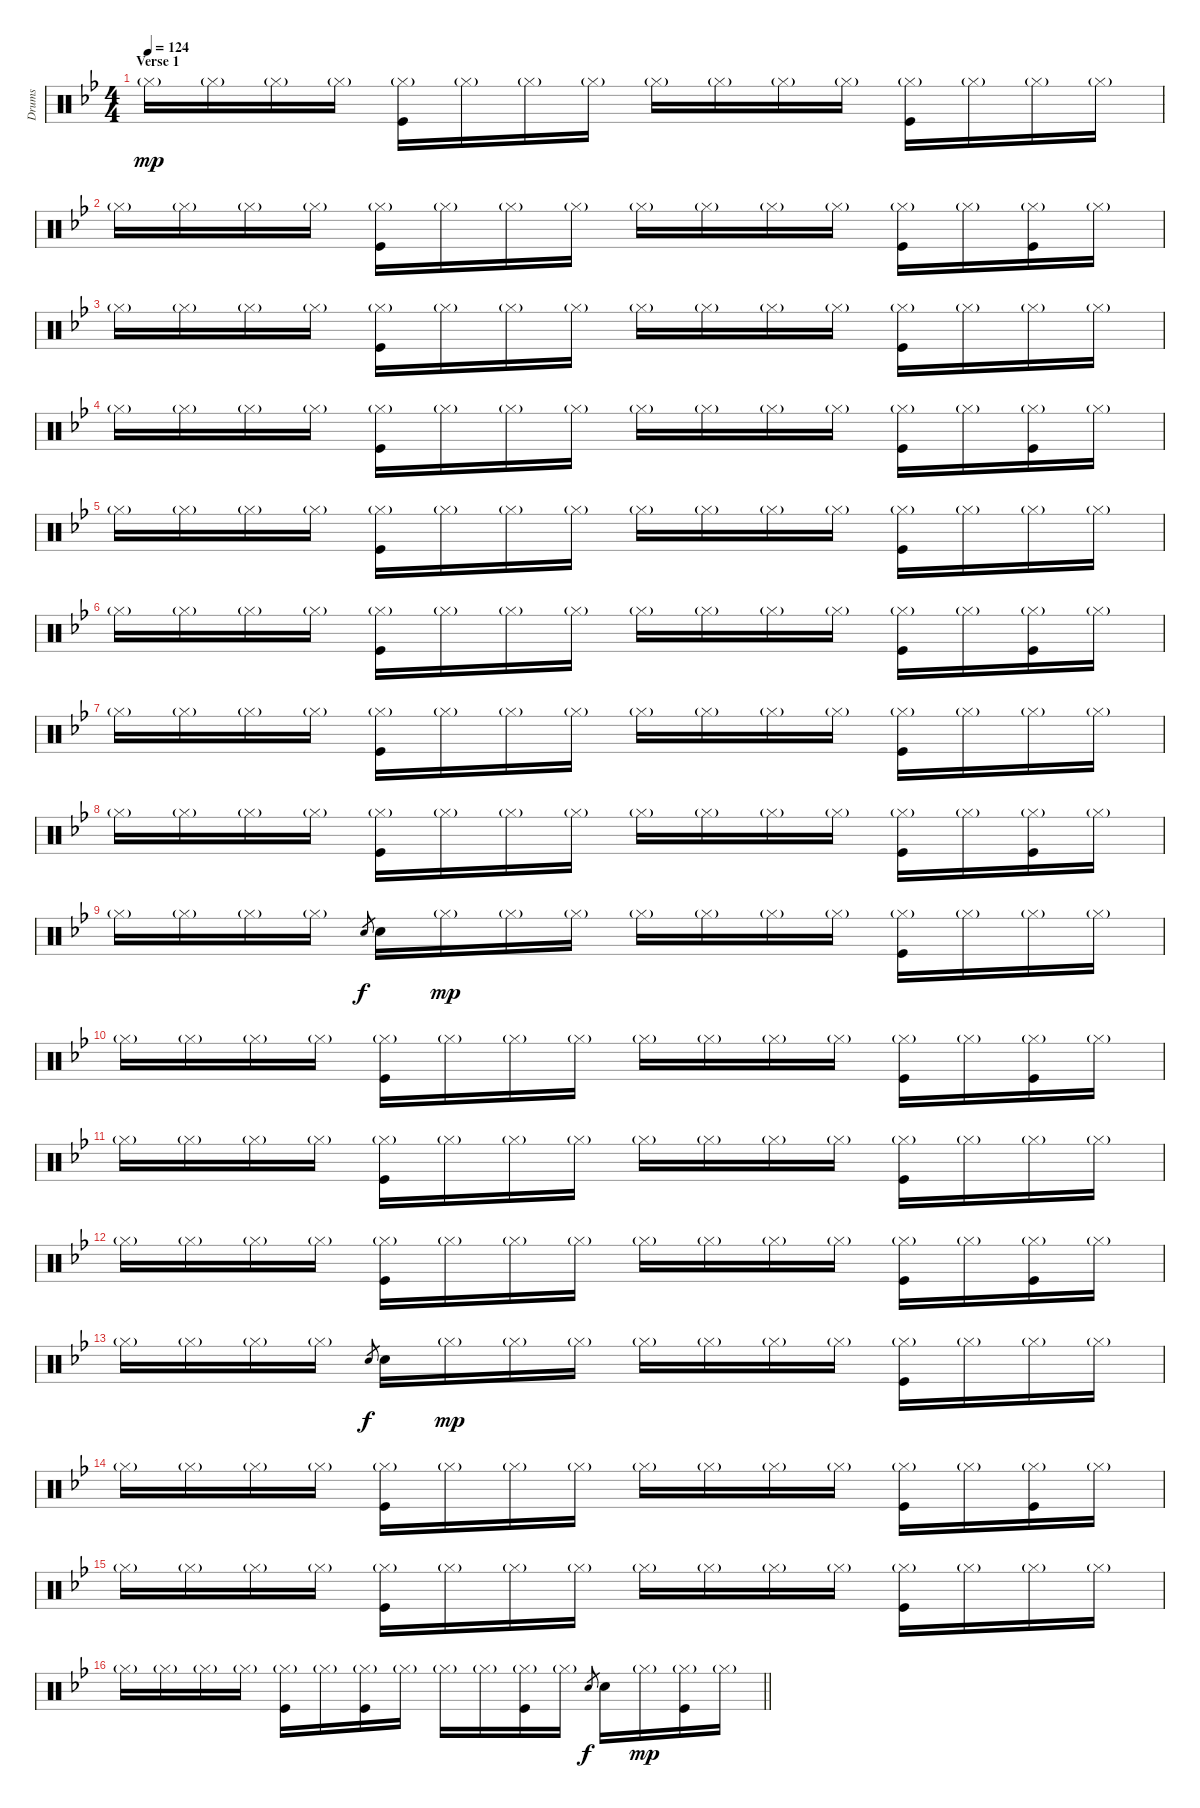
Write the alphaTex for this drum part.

\track ("Drums" "Drums") {instrument percussion}
\staff {score}
\articulation defaults
\ts (4 4)
\section ("" "Verse 1")
\tempo 124
\clef neutral
\ks gminor "Hi-Hat (closed)"{g}.16{dy mp} "Hi-Hat (closed)"{g}.16 "Hi-Hat (closed)"{g}.16 "Hi-Hat (closed)"{g}.16
("Hi-Hat (closed)"{g} "Kick (hit)").16 "Hi-Hat (closed)"{g}.16 "Hi-Hat (closed)"{g}.16 "Hi-Hat (closed)"{g}.16 "Hi-Hat (closed)"{g}.16 "Hi-Hat (closed)"{g}.16 "Hi-Hat (closed)"{g}.16 "Hi-Hat (closed)"{g}.16 ("Hi-Hat (closed)"{g} "Kick (hit)").16 "Hi-Hat (closed)"{g}.16 "Hi-Hat (closed)"{g}.16 "Hi-Hat (closed)"{g}.16 |
"Hi-Hat (closed)"{g}.16 "Hi-Hat (closed)"{g}.16 "Hi-Hat (closed)"{g}.16 "Hi-Hat (closed)"{g}.16 ("Hi-Hat (closed)"{g} "Kick (hit)").16 "Hi-Hat (closed)"{g}.16 "Hi-Hat (closed)"{g}.16 "Hi-Hat (closed)"{g}.16 "Hi-Hat (closed)"{g}.16 "Hi-Hat (closed)"{g}.16 "Hi-Hat (closed)"{g}.16 "Hi-Hat (closed)"{g}.16 ("Hi-Hat (closed)"{g} "Kick (hit)").16 "Hi-Hat (closed)"{g}.16 ("Hi-Hat (closed)"{g} "Kick (hit)").16 "Hi-Hat (closed)"{g}.16 |
"Hi-Hat (closed)"{g}.16 "Hi-Hat (closed)"{g}.16 "Hi-Hat (closed)"{g}.16 "Hi-Hat (closed)"{g}.16 ("Hi-Hat (closed)"{g} "Kick (hit)").16 "Hi-Hat (closed)"{g}.16 "Hi-Hat (closed)"{g}.16 "Hi-Hat (closed)"{g}.16 "Hi-Hat (closed)"{g}.16 "Hi-Hat (closed)"{g}.16 "Hi-Hat (closed)"{g}.16 "Hi-Hat (closed)"{g}.16 ("Hi-Hat (closed)"{g} "Kick (hit)").16 "Hi-Hat (closed)"{g}.16 "Hi-Hat (closed)"{g}.16 "Hi-Hat (closed)"{g}.16 |
"Hi-Hat (closed)"{g}.16 "Hi-Hat (closed)"{g}.16 "Hi-Hat (closed)"{g}.16 "Hi-Hat (closed)"{g}.16 ("Hi-Hat (closed)"{g} "Kick (hit)").16 "Hi-Hat (closed)"{g}.16 "Hi-Hat (closed)"{g}.16 "Hi-Hat (closed)"{g}.16 "Hi-Hat (closed)"{g}.16 "Hi-Hat (closed)"{g}.16 "Hi-Hat (closed)"{g}.16 "Hi-Hat (closed)"{g}.16 ("Hi-Hat (closed)"{g} "Kick (hit)").16 "Hi-Hat (closed)"{g}.16 ("Hi-Hat (closed)"{g} "Kick (hit)").16 "Hi-Hat (closed)"{g}.16 |
"Hi-Hat (closed)"{g}.16 "Hi-Hat (closed)"{g}.16 "Hi-Hat (closed)"{g}.16 "Hi-Hat (closed)"{g}.16 ("Hi-Hat (closed)"{g} "Kick (hit)").16 "Hi-Hat (closed)"{g}.16 "Hi-Hat (closed)"{g}.16 "Hi-Hat (closed)"{g}.16 "Hi-Hat (closed)"{g}.16 "Hi-Hat (closed)"{g}.16 "Hi-Hat (closed)"{g}.16 "Hi-Hat (closed)"{g}.16 ("Hi-Hat (closed)"{g} "Kick (hit)").16 "Hi-Hat (closed)"{g}.16 "Hi-Hat (closed)"{g}.16 "Hi-Hat (closed)"{g}.16 |
"Hi-Hat (closed)"{g}.16 "Hi-Hat (closed)"{g}.16 "Hi-Hat (closed)"{g}.16 "Hi-Hat (closed)"{g}.16 ("Hi-Hat (closed)"{g} "Kick (hit)").16 "Hi-Hat (closed)"{g}.16 "Hi-Hat (closed)"{g}.16 "Hi-Hat (closed)"{g}.16 "Hi-Hat (closed)"{g}.16 "Hi-Hat (closed)"{g}.16 "Hi-Hat (closed)"{g}.16 "Hi-Hat (closed)"{g}.16 ("Hi-Hat (closed)"{g} "Kick (hit)").16 "Hi-Hat (closed)"{g}.16 ("Hi-Hat (closed)"{g} "Kick (hit)").16 "Hi-Hat (closed)"{g}.16 |
"Hi-Hat (closed)"{g}.16 "Hi-Hat (closed)"{g}.16 "Hi-Hat (closed)"{g}.16 "Hi-Hat (closed)"{g}.16 ("Hi-Hat (closed)"{g} "Kick (hit)").16 "Hi-Hat (closed)"{g}.16 "Hi-Hat (closed)"{g}.16 "Hi-Hat (closed)"{g}.16 "Hi-Hat (closed)"{g}.16 "Hi-Hat (closed)"{g}.16 "Hi-Hat (closed)"{g}.16 "Hi-Hat (closed)"{g}.16 ("Hi-Hat (closed)"{g} "Kick (hit)").16 "Hi-Hat (closed)"{g}.16 "Hi-Hat (closed)"{g}.16 "Hi-Hat (closed)"{g}.16 |
"Hi-Hat (closed)"{g}.16 "Hi-Hat (closed)"{g}.16 "Hi-Hat (closed)"{g}.16 "Hi-Hat (closed)"{g}.16 ("Hi-Hat (closed)"{g} "Kick (hit)").16 "Hi-Hat (closed)"{g}.16 "Hi-Hat (closed)"{g}.16 "Hi-Hat (closed)"{g}.16 "Hi-Hat (closed)"{g}.16 "Hi-Hat (closed)"{g}.16 "Hi-Hat (closed)"{g}.16 "Hi-Hat (closed)"{g}.16 ("Hi-Hat (closed)"{g} "Kick (hit)").16 "Hi-Hat (closed)"{g}.16 ("Hi-Hat (closed)"{g} "Kick (hit)").16 "Hi-Hat (closed)"{g}.16 |
"Hi-Hat (closed)"{g}.16 "Hi-Hat (closed)"{g}.16 "Hi-Hat (closed)"{g}.16 "Hi-Hat (closed)"{g}.16 "Snare (hit) 2"{h}.8{gr dy f} "Snare (hit) 2".16 "Hi-Hat (closed)"{g}.16{dy mp} "Hi-Hat (closed)"{g}.16 "Hi-Hat (closed)"{g}.16 "Hi-Hat (closed)"{g}.16 "Hi-Hat (closed)"{g}.16 "Hi-Hat (closed)"{g}.16 "Hi-Hat (closed)"{g}.16 ("Hi-Hat (closed)"{g} "Kick (hit)").16 "Hi-Hat (closed)"{g}.16 "Hi-Hat (closed)"{g}.16 "Hi-Hat (closed)"{g}.16 |
"Hi-Hat (closed)"{g}.16 "Hi-Hat (closed)"{g}.16 "Hi-Hat (closed)"{g}.16 "Hi-Hat (closed)"{g}.16 ("Hi-Hat (closed)"{g} "Kick (hit)").16 "Hi-Hat (closed)"{g}.16 "Hi-Hat (closed)"{g}.16 "Hi-Hat (closed)"{g}.16 "Hi-Hat (closed)"{g}.16 "Hi-Hat (closed)"{g}.16 "Hi-Hat (closed)"{g}.16 "Hi-Hat (closed)"{g}.16 ("Hi-Hat (closed)"{g} "Kick (hit)").16 "Hi-Hat (closed)"{g}.16 ("Hi-Hat (closed)"{g} "Kick (hit)").16 "Hi-Hat (closed)"{g}.16 |
"Hi-Hat (closed)"{g}.16 "Hi-Hat (closed)"{g}.16 "Hi-Hat (closed)"{g}.16 "Hi-Hat (closed)"{g}.16 ("Hi-Hat (closed)"{g} "Kick (hit)").16 "Hi-Hat (closed)"{g}.16 "Hi-Hat (closed)"{g}.16 "Hi-Hat (closed)"{g}.16 "Hi-Hat (closed)"{g}.16 "Hi-Hat (closed)"{g}.16 "Hi-Hat (closed)"{g}.16 "Hi-Hat (closed)"{g}.16 ("Hi-Hat (closed)"{g} "Kick (hit)").16 "Hi-Hat (closed)"{g}.16 "Hi-Hat (closed)"{g}.16 "Hi-Hat (closed)"{g}.16 |
"Hi-Hat (closed)"{g}.16 "Hi-Hat (closed)"{g}.16 "Hi-Hat (closed)"{g}.16 "Hi-Hat (closed)"{g}.16 ("Hi-Hat (closed)"{g} "Kick (hit)").16 "Hi-Hat (closed)"{g}.16 "Hi-Hat (closed)"{g}.16 "Hi-Hat (closed)"{g}.16 "Hi-Hat (closed)"{g}.16 "Hi-Hat (closed)"{g}.16 "Hi-Hat (closed)"{g}.16 "Hi-Hat (closed)"{g}.16 ("Hi-Hat (closed)"{g} "Kick (hit)").16 "Hi-Hat (closed)"{g}.16 ("Hi-Hat (closed)"{g} "Kick (hit)").16 "Hi-Hat (closed)"{g}.16 |
"Hi-Hat (closed)"{g}.16 "Hi-Hat (closed)"{g}.16 "Hi-Hat (closed)"{g}.16 "Hi-Hat (closed)"{g}.16 "Snare (hit) 2"{h}.8{gr dy f} "Snare (hit) 2".16 "Hi-Hat (closed)"{g}.16{dy mp} "Hi-Hat (closed)"{g}.16 "Hi-Hat (closed)"{g}.16 "Hi-Hat (closed)"{g}.16 "Hi-Hat (closed)"{g}.16 "Hi-Hat (closed)"{g}.16 "Hi-Hat (closed)"{g}.16 ("Hi-Hat (closed)"{g} "Kick (hit)").16 "Hi-Hat (closed)"{g}.16 "Hi-Hat (closed)"{g}.16 "Hi-Hat (closed)"{g}.16 |
"Hi-Hat (closed)"{g}.16 "Hi-Hat (closed)"{g}.16 "Hi-Hat (closed)"{g}.16 "Hi-Hat (closed)"{g}.16 ("Hi-Hat (closed)"{g} "Kick (hit)").16 "Hi-Hat (closed)"{g}.16 "Hi-Hat (closed)"{g}.16 "Hi-Hat (closed)"{g}.16 "Hi-Hat (closed)"{g}.16 "Hi-Hat (closed)"{g}.16 "Hi-Hat (closed)"{g}.16 "Hi-Hat (closed)"{g}.16 ("Hi-Hat (closed)"{g} "Kick (hit)").16 "Hi-Hat (closed)"{g}.16 ("Hi-Hat (closed)"{g} "Kick (hit)").16 "Hi-Hat (closed)"{g}.16 |
"Hi-Hat (closed)"{g}.16 "Hi-Hat (closed)"{g}.16 "Hi-Hat (closed)"{g}.16 "Hi-Hat (closed)"{g}.16 ("Hi-Hat (closed)"{g} "Kick (hit)").16 "Hi-Hat (closed)"{g}.16 "Hi-Hat (closed)"{g}.16 "Hi-Hat (closed)"{g}.16 "Hi-Hat (closed)"{g}.16 "Hi-Hat (closed)"{g}.16 "Hi-Hat (closed)"{g}.16 "Hi-Hat (closed)"{g}.16 ("Hi-Hat (closed)"{g} "Kick (hit)").16 "Hi-Hat (closed)"{g}.16 "Hi-Hat (closed)"{g}.16 "Hi-Hat (closed)"{g}.16 |
\barLineRight lightlight "Hi-Hat (closed)"{g}.16 "Hi-Hat (closed)"{g}.16 "Hi-Hat (closed)"{g}.16 "Hi-Hat (closed)"{g}.16
("Hi-Hat (closed)"{g} "Kick (hit)").16 "Hi-Hat (closed)"{g}.16 ("Hi-Hat (closed)"{g} "Kick (hit)").16 "Hi-Hat (closed)"{g}.16 "Hi-Hat (closed)"{g}.16 "Hi-Hat (closed)"{g}.16 ("Hi-Hat (closed)"{g} "Kick (hit)").16 "Hi-Hat (closed)"{g}.16 "Snare (hit) 2".8{gr dy f} "Snare (hit) 2".16 "Hi-Hat (closed)"{g}.16{dy mp} ("Hi-Hat (closed)"{g} "Kick (hit)").16 "Hi-Hat (closed)"{g}.16
